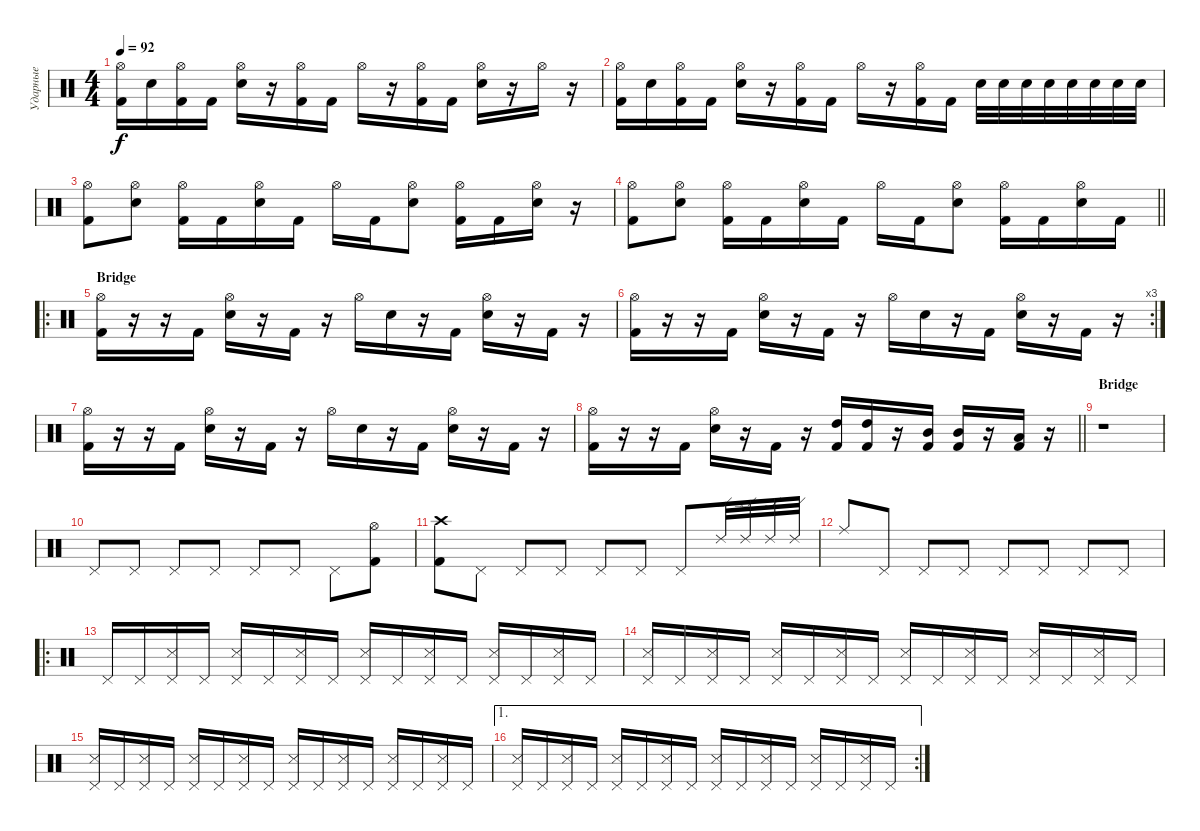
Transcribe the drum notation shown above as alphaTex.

\track ("Ударные" "Ударные") {instrument percussion}
\staff {score}
\articulation defaults
\ts (4 4)
\tempo 92
\clef neutral
\ks c
("Hi-Hat (open)" "Kick (hit) 2").16{dy f} "Electric Snare (hit)".16 ("Hi-Hat (open)" "Kick (hit) 2").16 "Kick (hit) 2".16 ("Hi-Hat (open)" "Electric Snare (hit)").16 r.16 ("Hi-Hat (open)" "Kick (hit) 2").16 "Kick (hit) 2".16 "Hi-Hat (open)".16 r.16 ("Hi-Hat (open)" "Kick (hit) 2").16 "Kick (hit) 2".16 ("Hi-Hat (open)" "Electric Snare (hit)").16 r.16 "Hi-Hat (open)".16 r.16 |
("Hi-Hat (open)" "Kick (hit) 2").16 "Electric Snare (hit)".16 ("Hi-Hat (open)" "Kick (hit) 2").16 "Kick (hit) 2".16 ("Hi-Hat (open)" "Electric Snare (hit)").16 r.16 ("Hi-Hat (open)" "Kick (hit) 2").16 "Kick (hit) 2".16 "Hi-Hat (open)".16 r.16 ("Hi-Hat (open)" "Kick (hit) 2").16 "Kick (hit) 2".16 "Snare (hit) 2".32 "Snare (hit) 2".32 "Snare (hit) 2".32 "Snare (hit) 2".32 "Snare (hit) 2".32 "Electric Snare (hit)".32 "Electric Snare (hit)".32 "Electric Snare (hit)".32 |
("Hi-Hat (open)" "Kick (hit) 2").8 ("Hi-Hat (open)" "Electric Snare (hit)").8 ("Hi-Hat (open)" "Kick (hit) 2").16 "Kick (hit) 2".16 ("Hi-Hat (open)" "Electric Snare (hit)").16 "Kick (hit) 2".16 "Hi-Hat (open)".16 "Kick (hit) 2".16 ("Hi-Hat (open)" "Electric Snare (hit)").8 ("Hi-Hat (open)" "Kick (hit) 2").16 "Kick (hit) 2".16 ("Hi-Hat (open)" "Electric Snare (hit)").16 r.16 |
\barLineRight lightlight
("Hi-Hat (open)" "Kick (hit) 2").8 ("Hi-Hat (open)" "Electric Snare (hit)").8 ("Hi-Hat (open)" "Kick (hit) 2").16 "Kick (hit) 2".16 ("Hi-Hat (open)" "Electric Snare (hit)").16 "Kick (hit) 2".16 "Hi-Hat (open)".16 "Kick (hit) 2".16 ("Hi-Hat (open)" "Electric Snare (hit)").8 ("Hi-Hat (open)" "Kick (hit) 2").16 "Kick (hit) 2".16 ("Hi-Hat (open)" "Electric Snare (hit)").16 "Kick (hit) 2".16 |
\ro
\section ("" "Bridge")
("Hi-Hat (open)" "Kick (hit) 2").16 r.16 r.16 "Kick (hit) 2".16 ("Hi-Hat (open)" "Electric Snare (hit)").16 r.16 "Kick (hit) 2".16 r.16 "Hi-Hat (open)".16 "Electric Snare (hit)".16 r.16 "Kick (hit) 2".16 ("Hi-Hat (open)" "Electric Snare (hit)").16 r.16 "Kick (hit) 2".16 r.16 |
\rc 3
("Hi-Hat (open)" "Kick (hit) 2").16 r.16 r.16 "Kick (hit) 2".16 ("Hi-Hat (open)" "Electric Snare (hit)").16 r.16 "Kick (hit) 2".16 r.16 "Hi-Hat (open)".16 "Electric Snare (hit)".16 r.16 "Kick (hit) 2".16 ("Hi-Hat (open)" "Electric Snare (hit)").16 r.16 "Kick (hit) 2".16 r.16 |
("Hi-Hat (open)" "Kick (hit) 2").16 r.16 r.16 "Kick (hit) 2".16 ("Hi-Hat (open)" "Electric Snare (hit)").16 r.16 "Kick (hit) 2".16 r.16 "Hi-Hat (open)".16 "Electric Snare (hit)".16 r.16 "Kick (hit) 2".16 ("Hi-Hat (open)" "Electric Snare (hit)").16 r.16 "Kick (hit) 2".16 r.16 |
\barLineRight lightlight
("Hi-Hat (open)" "Kick (hit) 2").16 r.16 r.16 "Kick (hit) 2".16 ("Hi-Hat (open)" "Electric Snare (hit)").16 r.16 "Kick (hit) 2".16 r.16 ("Kick (hit) 2" "High Tom (hit)").16 ("Kick (hit) 2" "High Tom (hit)").16 r.16 ("Kick (hit) 2" "Mid Tom (hit)").16 ("Kick (hit) 2" "Mid Tom (hit)").16 r.16 ("Kick (hit) 2" "Low Tom (hit)").16 r.16 |
\section ("" "Bridge")
r.1 |
"Pedal Hi-Hat (hit)".8 "Pedal Hi-Hat (hit)".8 "Pedal Hi-Hat (hit)".8 "Pedal Hi-Hat (hit)".8 "Pedal Hi-Hat (hit)".8 "Pedal Hi-Hat (hit)".8 "Pedal Hi-Hat (hit)".8 ("Hi-Hat (open)" "Kick (hit) 2").8 |
("Crash high (hit)" "Kick (hit) 2").8 "Pedal Hi-Hat (hit)".8 "Pedal Hi-Hat (hit)".8 "Pedal Hi-Hat (hit)".8 "Pedal Hi-Hat (hit)".8 "Pedal Hi-Hat (hit)".8 "Pedal Hi-Hat (hit)".8 "Ride (edge) 2".32 "Ride (edge) 2".32 "Ride (edge) 2".32 "Ride (edge) 2".32 |
"Ride (middle)".8 "Pedal Hi-Hat (hit)".8 "Pedal Hi-Hat (hit)".8 "Pedal Hi-Hat (hit)".8 "Pedal Hi-Hat (hit)".8 "Pedal Hi-Hat (hit)".8 "Pedal Hi-Hat (hit)".8 "Pedal Hi-Hat (hit)".8 |
\ro "Pedal Hi-Hat (hit)".16 "Pedal Hi-Hat (hit)".16
("Pedal Hi-Hat (hit)" "Snare (side stick) 3").16 "Pedal Hi-Hat (hit)".16 ("Pedal Hi-Hat (hit)" "Snare (side stick) 3").16 "Pedal Hi-Hat (hit)".16 ("Pedal Hi-Hat (hit)" "Snare (side stick) 3").16 "Pedal Hi-Hat (hit)".16 ("Pedal Hi-Hat (hit)" "Snare (side stick) 3").16 "Pedal Hi-Hat (hit)".16 ("Pedal Hi-Hat (hit)" "Snare (side stick) 3").16 "Pedal Hi-Hat (hit)".16 ("Pedal Hi-Hat (hit)" "Snare (side stick) 3").16 "Pedal Hi-Hat (hit)".16 ("Pedal Hi-Hat (hit)" "Snare (side stick) 3").16 "Pedal Hi-Hat (hit)".16 |
("Pedal Hi-Hat (hit)" "Snare (side stick) 3").16 "Pedal Hi-Hat (hit)".16 ("Pedal Hi-Hat (hit)" "Snare (side stick) 3").16 "Pedal Hi-Hat (hit)".16 ("Pedal Hi-Hat (hit)" "Snare (side stick) 3").16 "Pedal Hi-Hat (hit)".16 ("Pedal Hi-Hat (hit)" "Snare (side stick) 3").16 "Pedal Hi-Hat (hit)".16 ("Pedal Hi-Hat (hit)" "Snare (side stick) 3").16 "Pedal Hi-Hat (hit)".16 ("Pedal Hi-Hat (hit)" "Snare (side stick) 3").16 "Pedal Hi-Hat (hit)".16 ("Pedal Hi-Hat (hit)" "Snare (side stick) 3").16 "Pedal Hi-Hat (hit)".16 ("Pedal Hi-Hat (hit)" "Snare (side stick) 3").16 "Pedal Hi-Hat (hit)".16 |
("Pedal Hi-Hat (hit)" "Snare (side stick) 3").16 "Pedal Hi-Hat (hit)".16 ("Pedal Hi-Hat (hit)" "Snare (side stick) 3").16 "Pedal Hi-Hat (hit)".16 ("Pedal Hi-Hat (hit)" "Snare (side stick) 3").16 "Pedal Hi-Hat (hit)".16 ("Pedal Hi-Hat (hit)" "Snare (side stick) 3").16 "Pedal Hi-Hat (hit)".16 ("Pedal Hi-Hat (hit)" "Snare (side stick) 3").16 "Pedal Hi-Hat (hit)".16 ("Pedal Hi-Hat (hit)" "Snare (side stick) 3").16 "Pedal Hi-Hat (hit)".16 ("Pedal Hi-Hat (hit)" "Snare (side stick) 3").16 "Pedal Hi-Hat (hit)".16 ("Pedal Hi-Hat (hit)" "Snare (side stick) 3").16 "Pedal Hi-Hat (hit)".16 |
\ae 1
\rc 2
("Pedal Hi-Hat (hit)" "Snare (side stick) 3").16 "Pedal Hi-Hat (hit)".16 ("Pedal Hi-Hat (hit)" "Snare (side stick) 3").16 "Pedal Hi-Hat (hit)".16 ("Pedal Hi-Hat (hit)" "Snare (side stick) 3").16 "Pedal Hi-Hat (hit)".16 ("Pedal Hi-Hat (hit)" "Snare (side stick) 3").16 "Pedal Hi-Hat (hit)".16 ("Pedal Hi-Hat (hit)" "Snare (side stick) 3").16 "Pedal Hi-Hat (hit)".16 ("Pedal Hi-Hat (hit)" "Snare (side stick) 3").16 "Pedal Hi-Hat (hit)".16 ("Pedal Hi-Hat (hit)" "Snare (side stick) 3").16 "Pedal Hi-Hat (hit)".16 ("Pedal Hi-Hat (hit)" "Snare (side stick) 3").16 "Pedal Hi-Hat (hit)".16
